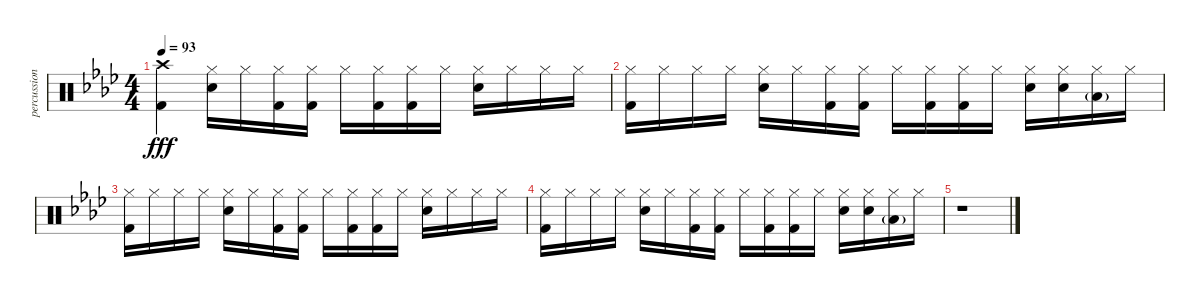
\track ("percussion" "percussion") {instrument percussion}
\staff {score}
\articulation defaults
\ts (4 4)
\tempo 93
\clef neutral
\ks fminor
("Crash high (hit)" "Kick (hit) 2").4{dy fff} ("Snare (hit) 2" "Hi-Hat (closed)").16 "Hi-Hat (closed)".16 ("Hi-Hat (closed)" "Kick (hit) 2").16 ("Hi-Hat (closed)" "Kick (hit) 2").16 "Hi-Hat (closed)".16 ("Hi-Hat (closed)" "Kick (hit) 2").16 ("Hi-Hat (closed)" "Kick (hit) 2").16 "Hi-Hat (closed)".16 ("Snare (hit) 2" "Hi-Hat (closed)").16 "Hi-Hat (closed)".16 "Hi-Hat (closed)".16 "Hi-Hat (closed)".16 |
("Hi-Hat (closed)" "Kick (hit) 2").16 "Hi-Hat (closed)".16 "Hi-Hat (closed)".16 "Hi-Hat (closed)".16 ("Snare (hit) 2" "Hi-Hat (closed)").16 "Hi-Hat (closed)".16 ("Hi-Hat (closed)" "Kick (hit) 2").16 ("Hi-Hat (closed)" "Kick (hit) 2").16 "Hi-Hat (closed)".16 ("Hi-Hat (closed)" "Kick (hit) 2").16 ("Hi-Hat (closed)" "Kick (hit) 2").16 "Hi-Hat (closed)".16 ("Snare (hit) 2" "Hi-Hat (closed)").16 ("Snare (hit) 2" "Hi-Hat (closed)").16 ("Low Floor Tom (hit)"{g} "Hi-Hat (closed)").16 "Hi-Hat (closed)".16 |
("Hi-Hat (closed)" "Kick (hit) 2").16 "Hi-Hat (closed)".16 "Hi-Hat (closed)".16 "Hi-Hat (closed)".16 ("Snare (hit) 2" "Hi-Hat (closed)").16 "Hi-Hat (closed)".16 ("Hi-Hat (closed)" "Kick (hit) 2").16 ("Hi-Hat (closed)" "Kick (hit) 2").16 "Hi-Hat (closed)".16 ("Hi-Hat (closed)" "Kick (hit) 2").16 ("Hi-Hat (closed)" "Kick (hit) 2").16 "Hi-Hat (closed)".16 ("Snare (hit) 2" "Hi-Hat (closed)").16 "Hi-Hat (closed)".16 "Hi-Hat (closed)".16 "Hi-Hat (closed)".16 |
("Hi-Hat (closed)" "Kick (hit) 2").16 "Hi-Hat (closed)".16 "Hi-Hat (closed)".16 "Hi-Hat (closed)".16 ("Snare (hit) 2" "Hi-Hat (closed)").16 "Hi-Hat (closed)".16 ("Hi-Hat (closed)" "Kick (hit) 2").16 ("Hi-Hat (closed)" "Kick (hit) 2").16 "Hi-Hat (closed)".16 ("Hi-Hat (closed)" "Kick (hit) 2").16 ("Hi-Hat (closed)" "Kick (hit) 2").16 "Hi-Hat (closed)".16 ("Snare (hit) 2" "Hi-Hat (closed)").16 ("Snare (hit) 2" "Hi-Hat (closed)").16 ("Low Floor Tom (hit)"{g} "Hi-Hat (closed)").16 "Hi-Hat (closed)".16 |
r.1
